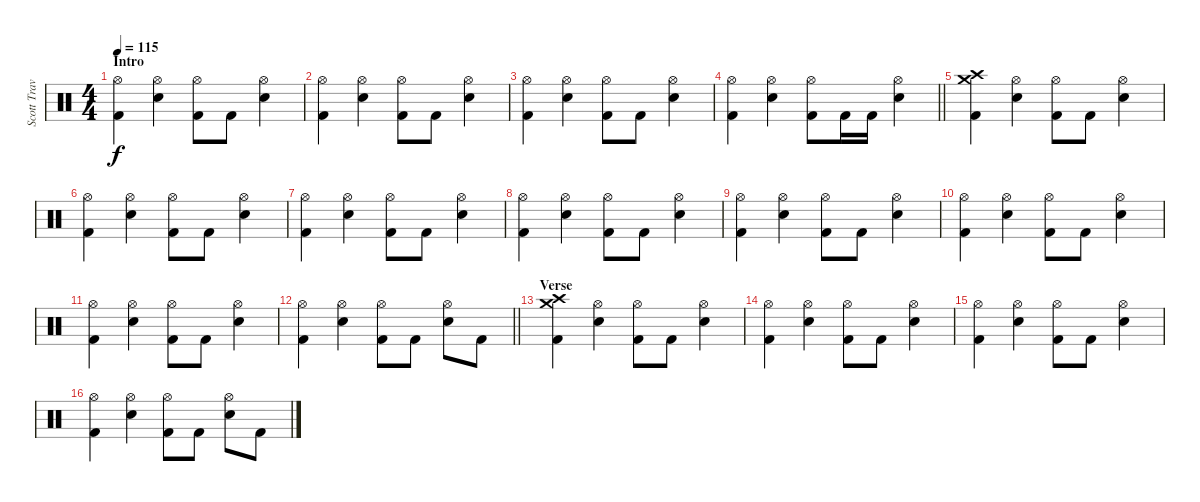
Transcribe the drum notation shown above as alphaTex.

\track ("Scott Travis" "Scott Trav") {instrument percussion}
\staff {score}
\articulation defaults
\ts (4 4)
\section ("" "Intro")
\tempo 115
\clef neutral
\ks c
("Hi-Hat (open)" "Kick (hit) 2").4{dy f} ("Hi-Hat (open)" "Snare (hit) 2").4 ("Hi-Hat (open)" "Kick (hit) 2").8 "Kick (hit) 2".8 ("Hi-Hat (open)" "Snare (hit) 2").4 |
("Hi-Hat (open)" "Kick (hit) 2").4 ("Hi-Hat (open)" "Snare (hit) 2").4 ("Hi-Hat (open)" "Kick (hit) 2").8 "Kick (hit) 2".8 ("Hi-Hat (open)" "Snare (hit) 2").4 |
("Hi-Hat (open)" "Kick (hit) 2").4 ("Hi-Hat (open)" "Snare (hit) 2").4 ("Hi-Hat (open)" "Kick (hit) 2").8 "Kick (hit) 2".8 ("Hi-Hat (open)" "Snare (hit) 2").4 |
\barLineRight lightlight
("Hi-Hat (open)" "Kick (hit) 2").4 ("Hi-Hat (open)" "Snare (hit) 2").4 ("Hi-Hat (open)" "Kick (hit) 2").8 "Kick (hit) 2".16 "Kick (hit) 2".16 ("Hi-Hat (open)" "Snare (hit) 2").4 |
("Crash medium (hit)" "Crash high (hit)" "Kick (hit) 2").4 ("Hi-Hat (open)" "Snare (hit) 2").4 ("Hi-Hat (open)" "Kick (hit) 2").8 "Kick (hit) 2".8 ("Hi-Hat (open)" "Snare (hit) 2").4 |
("Hi-Hat (open)" "Kick (hit) 2").4 ("Hi-Hat (open)" "Snare (hit) 2").4 ("Hi-Hat (open)" "Kick (hit) 2").8 "Kick (hit) 2".8 ("Hi-Hat (open)" "Snare (hit) 2").4 |
("Hi-Hat (open)" "Kick (hit) 2").4 ("Hi-Hat (open)" "Snare (hit) 2").4 ("Hi-Hat (open)" "Kick (hit) 2").8 "Kick (hit) 2".8 ("Hi-Hat (open)" "Snare (hit) 2").4 |
("Hi-Hat (open)" "Kick (hit) 2").4 ("Hi-Hat (open)" "Snare (hit) 2").4 ("Hi-Hat (open)" "Kick (hit) 2").8 "Kick (hit) 2".8 ("Hi-Hat (open)" "Snare (hit) 2").4 |
("Hi-Hat (open)" "Kick (hit) 2").4 ("Hi-Hat (open)" "Snare (hit) 2").4 ("Hi-Hat (open)" "Kick (hit) 2").8 "Kick (hit) 2".8 ("Hi-Hat (open)" "Snare (hit) 2").4 |
("Hi-Hat (open)" "Kick (hit) 2").4 ("Hi-Hat (open)" "Snare (hit) 2").4 ("Hi-Hat (open)" "Kick (hit) 2").8 "Kick (hit) 2".8 ("Hi-Hat (open)" "Snare (hit) 2").4 |
("Hi-Hat (open)" "Kick (hit) 2").4 ("Hi-Hat (open)" "Snare (hit) 2").4 ("Hi-Hat (open)" "Kick (hit) 2").8 "Kick (hit) 2".8 ("Hi-Hat (open)" "Snare (hit) 2").4 |
\barLineRight lightlight
("Hi-Hat (open)" "Kick (hit) 2").4 ("Hi-Hat (open)" "Snare (hit) 2").4 ("Hi-Hat (open)" "Kick (hit) 2").8 "Kick (hit) 2".8 ("Hi-Hat (open)" "Snare (hit) 2").8 "Kick (hit) 2".8 |
\section ("" "Verse")
("Crash medium (hit)" "Crash high (hit)" "Kick (hit) 2").4 ("Hi-Hat (open)" "Snare (hit) 2").4 ("Hi-Hat (open)" "Kick (hit) 2").8 "Kick (hit) 2".8 ("Hi-Hat (open)" "Snare (hit) 2").4 |
("Hi-Hat (open)" "Kick (hit) 2").4 ("Hi-Hat (open)" "Snare (hit) 2").4 ("Hi-Hat (open)" "Kick (hit) 2").8 "Kick (hit) 2".8 ("Hi-Hat (open)" "Snare (hit) 2").4 |
("Hi-Hat (open)" "Kick (hit) 2").4 ("Hi-Hat (open)" "Snare (hit) 2").4 ("Hi-Hat (open)" "Kick (hit) 2").8 "Kick (hit) 2".8 ("Hi-Hat (open)" "Snare (hit) 2").4 |
("Hi-Hat (open)" "Kick (hit) 2").4 ("Hi-Hat (open)" "Snare (hit) 2").4 ("Hi-Hat (open)" "Kick (hit) 2").8 "Kick (hit) 2".8 ("Hi-Hat (open)" "Snare (hit) 2").8 "Kick (hit) 2".8
